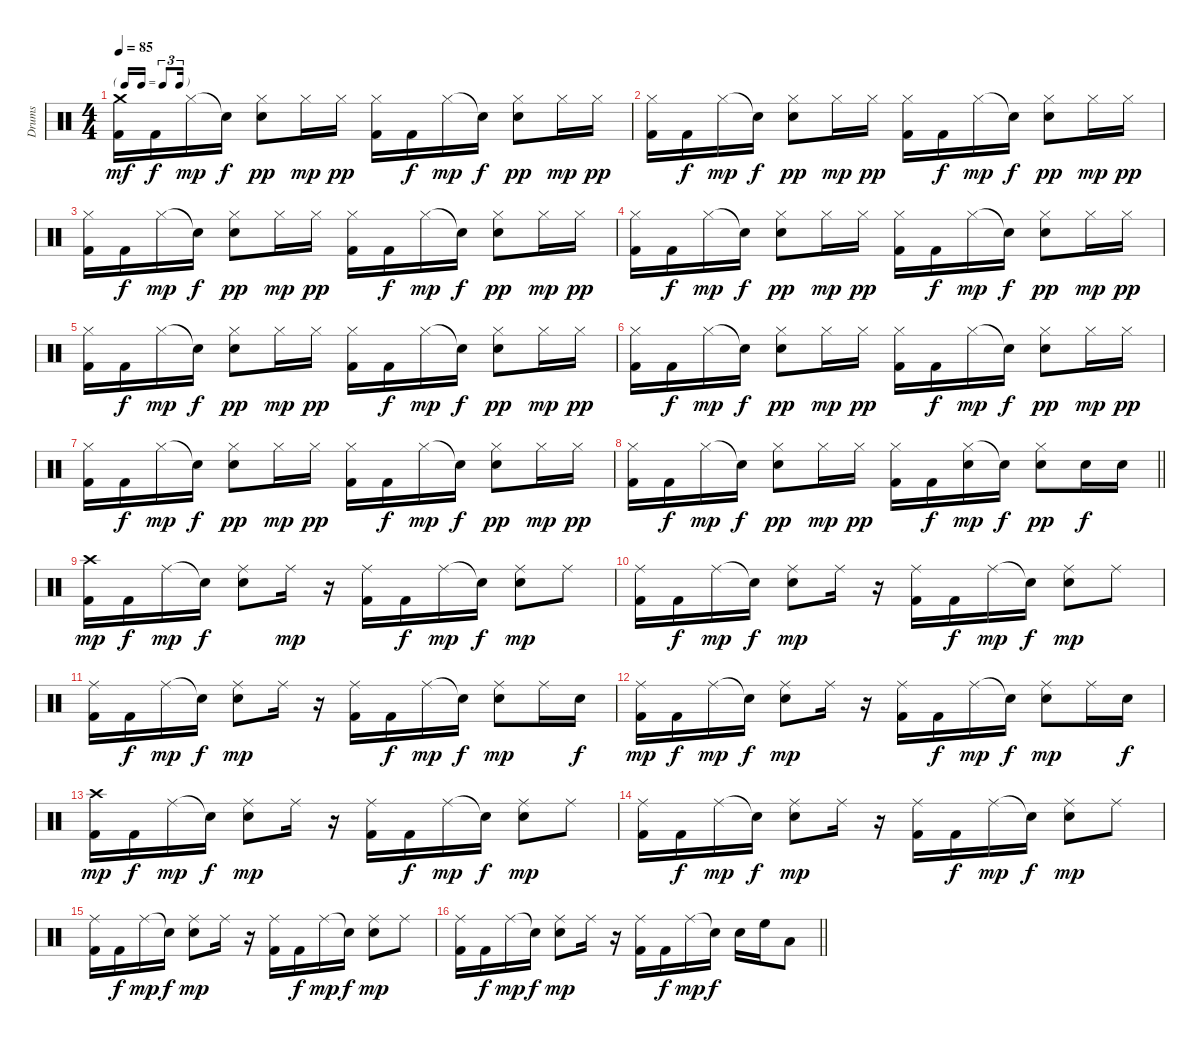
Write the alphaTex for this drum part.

\track ("Drums" "Drums") {instrument percussion}
\staff {score}
\articulation defaults
\ts (4 4)
\tf triplet16th
\tempo 85
\clef neutral
\ks c
("Crash medium (hit)" "Kick (hit) 2").16{dy mf} "Kick (hit) 2".16{dy f} "Hi-Hat (closed)".16{dy mp} "Snare (hit)"{t}.16{dy f} ("Hi-Hat (closed)" "Electric Snare (hit)").8{dy pp} "Hi-Hat (closed)".16{dy mp} "Hi-Hat (closed)".16{dy pp} ("Hi-Hat (closed)" "Kick (hit) 2").16 "Kick (hit) 2".16{dy f} "Hi-Hat (closed)".16{dy mp} "Snare (hit)"{t}.16{dy f} ("Hi-Hat (closed)" "Electric Snare (hit)").8{dy pp} "Hi-Hat (closed)".16{dy mp} "Hi-Hat (closed)".16{dy pp} |
("Hi-Hat (closed)" "Kick (hit) 2").16 "Kick (hit) 2".16{dy f} "Hi-Hat (closed)".16{dy mp} "Snare (hit)"{t}.16{dy f} ("Hi-Hat (closed)" "Electric Snare (hit)").8{dy pp} "Hi-Hat (closed)".16{dy mp} "Hi-Hat (closed)".16{dy pp} ("Hi-Hat (closed)" "Kick (hit) 2").16 "Kick (hit) 2".16{dy f} "Hi-Hat (closed)".16{dy mp} "Snare (hit)"{t}.16{dy f} ("Hi-Hat (closed)" "Electric Snare (hit)").8{dy pp} "Hi-Hat (closed)".16{dy mp} "Hi-Hat (closed)".16{dy pp} |
("Hi-Hat (closed)" "Kick (hit) 2").16 "Kick (hit) 2".16{dy f} "Hi-Hat (closed)".16{dy mp} "Snare (hit)"{t}.16{dy f} ("Hi-Hat (closed)" "Electric Snare (hit)").8{dy pp} "Hi-Hat (closed)".16{dy mp} "Hi-Hat (closed)".16{dy pp} ("Hi-Hat (closed)" "Kick (hit) 2").16 "Kick (hit) 2".16{dy f} "Hi-Hat (closed)".16{dy mp} "Snare (hit)"{t}.16{dy f} ("Hi-Hat (closed)" "Electric Snare (hit)").8{dy pp} "Hi-Hat (closed)".16{dy mp} "Hi-Hat (closed)".16{dy pp} |
("Hi-Hat (closed)" "Kick (hit) 2").16 "Kick (hit) 2".16{dy f} "Hi-Hat (closed)".16{dy mp} "Snare (hit)"{t}.16{dy f} ("Hi-Hat (closed)" "Electric Snare (hit)").8{dy pp} "Hi-Hat (closed)".16{dy mp} "Hi-Hat (closed)".16{dy pp} ("Hi-Hat (closed)" "Kick (hit) 2").16 "Kick (hit) 2".16{dy f} "Hi-Hat (closed)".16{dy mp} "Snare (hit)"{t}.16{dy f} ("Hi-Hat (closed)" "Electric Snare (hit)").8{dy pp} "Hi-Hat (closed)".16{dy mp} "Hi-Hat (closed)".16{dy pp} |
("Hi-Hat (closed)" "Kick (hit) 2").16 "Kick (hit) 2".16{dy f} "Hi-Hat (closed)".16{dy mp} "Snare (hit)"{t}.16{dy f} ("Hi-Hat (closed)" "Electric Snare (hit)").8{dy pp} "Hi-Hat (closed)".16{dy mp} "Hi-Hat (closed)".16{dy pp} ("Hi-Hat (closed)" "Kick (hit) 2").16 "Kick (hit) 2".16{dy f} "Hi-Hat (closed)".16{dy mp} "Snare (hit)"{t}.16{dy f} ("Hi-Hat (closed)" "Electric Snare (hit)").8{dy pp} "Hi-Hat (closed)".16{dy mp} "Hi-Hat (closed)".16{dy pp} |
("Hi-Hat (closed)" "Kick (hit) 2").16 "Kick (hit) 2".16{dy f} "Hi-Hat (closed)".16{dy mp} "Snare (hit)"{t}.16{dy f} ("Hi-Hat (closed)" "Electric Snare (hit)").8{dy pp} "Hi-Hat (closed)".16{dy mp} "Hi-Hat (closed)".16{dy pp} ("Hi-Hat (closed)" "Kick (hit) 2").16 "Kick (hit) 2".16{dy f} "Hi-Hat (closed)".16{dy mp} "Snare (hit)"{t}.16{dy f} ("Hi-Hat (closed)" "Electric Snare (hit)").8{dy pp} "Hi-Hat (closed)".16{dy mp} "Hi-Hat (closed)".16{dy pp} |
("Hi-Hat (closed)" "Kick (hit) 2").16 "Kick (hit) 2".16{dy f} "Hi-Hat (closed)".16{dy mp} "Snare (hit)"{t}.16{dy f} ("Hi-Hat (closed)" "Electric Snare (hit)").8{dy pp} "Hi-Hat (closed)".16{dy mp} "Hi-Hat (closed)".16{dy pp} ("Hi-Hat (closed)" "Kick (hit) 2").16 "Kick (hit) 2".16{dy f} "Hi-Hat (closed)".16{dy mp} "Snare (hit)"{t}.16{dy f} ("Hi-Hat (closed)" "Electric Snare (hit)").8{dy pp} "Hi-Hat (closed)".16{dy mp} "Hi-Hat (closed)".16{dy pp} |
\barLineRight lightlight
("Hi-Hat (closed)" "Kick (hit) 2").16 "Kick (hit) 2".16{dy f} "Hi-Hat (closed)".16{dy mp} "Snare (hit)"{t}.16{dy f} ("Hi-Hat (closed)" "Electric Snare (hit)").8{dy pp} "Hi-Hat (closed)".16{dy mp} "Hi-Hat (closed)".16{dy pp} ("Hi-Hat (closed)" "Kick (hit) 2").16 "Kick (hit) 2".16{dy f} ("Hi-Hat (closed)" "Electric Snare (hit)").16{dy mp} "Snare (hit)"{t}.16{dy f} ("Hi-Hat (closed)" "Electric Snare (hit)").8{dy pp} "Electric Snare (hit)".16{dy f} "Electric Snare (hit)".16 |
("Crash high (hit)" "Kick (hit) 2").16{dy mp} "Kick (hit) 2".16{dy f} "Ride (middle)".16{dy mp} "Snare (hit)"{t}.16{dy f} ("Ride (middle)" "Electric Snare (hit)").8 "Ride (middle)".16{dy mp} r.16 ("Ride (middle)" "Kick (hit) 2").16 "Kick (hit) 2".16{dy f} "Ride (middle)".16{dy mp} "Snare (hit)"{t}.16{dy f} ("Ride (middle)" "Electric Snare (hit)").8{dy mp} "Ride (middle)".8 |
("Ride (middle)" "Kick (hit) 2").16 "Kick (hit) 2".16{dy f} "Ride (middle)".16{dy mp} "Snare (hit)"{t}.16{dy f} ("Ride (middle)" "Electric Snare (hit)").8{dy mp} "Ride (middle)".16 r.16 ("Ride (middle)" "Kick (hit) 2").16 "Kick (hit) 2".16{dy f} "Ride (middle)".16{dy mp} "Snare (hit)"{t}.16{dy f} ("Ride (middle)" "Electric Snare (hit)").8{dy mp} "Ride (middle)".8 |
("Ride (middle)" "Kick (hit) 2").16 "Kick (hit) 2".16{dy f} "Ride (middle)".16{dy mp} "Snare (hit)"{t}.16{dy f} ("Ride (middle)" "Electric Snare (hit)").8{dy mp} "Ride (middle)".16 r.16 ("Ride (middle)" "Kick (hit) 2").16 "Kick (hit) 2".16{dy f} "Ride (middle)".16{dy mp} "Snare (hit)"{t}.16{dy f} ("Ride (middle)" "Electric Snare (hit)").8{dy mp} "Ride (middle)".16 "Electric Snare (hit)".16{dy f} |
("Ride (middle)" "Kick (hit) 2").16{dy mp} "Kick (hit) 2".16{dy f} "Ride (middle)".16{dy mp} "Snare (hit)"{t}.16{dy f} ("Ride (middle)" "Electric Snare (hit)").8{dy mp} "Ride (middle)".16 r.16 ("Ride (middle)" "Kick (hit) 2").16 "Kick (hit) 2".16{dy f} "Ride (middle)".16{dy mp} "Snare (hit)"{t}.16{dy f} ("Ride (middle)" "Electric Snare (hit)").8{dy mp} "Ride (middle)".16 "Electric Snare (hit)".16{dy f} |
("Crash high (hit)" "Kick (hit) 2").16{dy mp} "Kick (hit) 2".16{dy f} "Ride (middle)".16{dy mp} "Snare (hit)"{t}.16{dy f} ("Ride (middle)" "Electric Snare (hit)").8{dy mp} "Ride (middle)".16 r.16 ("Ride (middle)" "Kick (hit) 2").16 "Kick (hit) 2".16{dy f} "Ride (middle)".16{dy mp} "Snare (hit)"{t}.16{dy f} ("Ride (middle)" "Electric Snare (hit)").8{dy mp} "Ride (middle)".8 |
("Ride (middle)" "Kick (hit) 2").16 "Kick (hit) 2".16{dy f} "Ride (middle)".16{dy mp} "Snare (hit)"{t}.16{dy f} ("Ride (middle)" "Electric Snare (hit)").8{dy mp} "Ride (middle)".16 r.16 ("Ride (middle)" "Kick (hit) 2").16 "Kick (hit) 2".16{dy f} "Ride (middle)".16{dy mp} "Snare (hit)"{t}.16{dy f} ("Ride (middle)" "Electric Snare (hit)").8{dy mp} "Ride (middle)".8 |
("Ride (middle)" "Kick (hit) 2").16 "Kick (hit) 2".16{dy f} "Ride (middle)".16{dy mp} "Snare (hit)"{t}.16{dy f} ("Ride (middle)" "Electric Snare (hit)").8{dy mp} "Ride (middle)".16 r.16 ("Ride (middle)" "Kick (hit) 2").16 "Kick (hit) 2".16{dy f} "Ride (middle)".16{dy mp} "Snare (hit)"{t}.16{dy f} ("Ride (middle)" "Electric Snare (hit)").8{dy mp} "Ride (middle)".8 |
\barLineRight lightlight
("Ride (middle)" "Kick (hit) 2").16 "Kick (hit) 2".16{dy f} "Ride (middle)".16{dy mp} "Snare (hit)"{t}.16{dy f} ("Ride (middle)" "Electric Snare (hit)").8{dy mp} "Ride (middle)".16 r.16 ("Ride (middle)" "Kick (hit) 2").16 "Kick (hit) 2".16{dy f} "Ride (middle)".16{dy mp} "Snare (hit)"{t}.16{dy f} "Electric Snare (hit)".16 "High Floor Tom (hit)".16 "Low Tom (hit)".8
